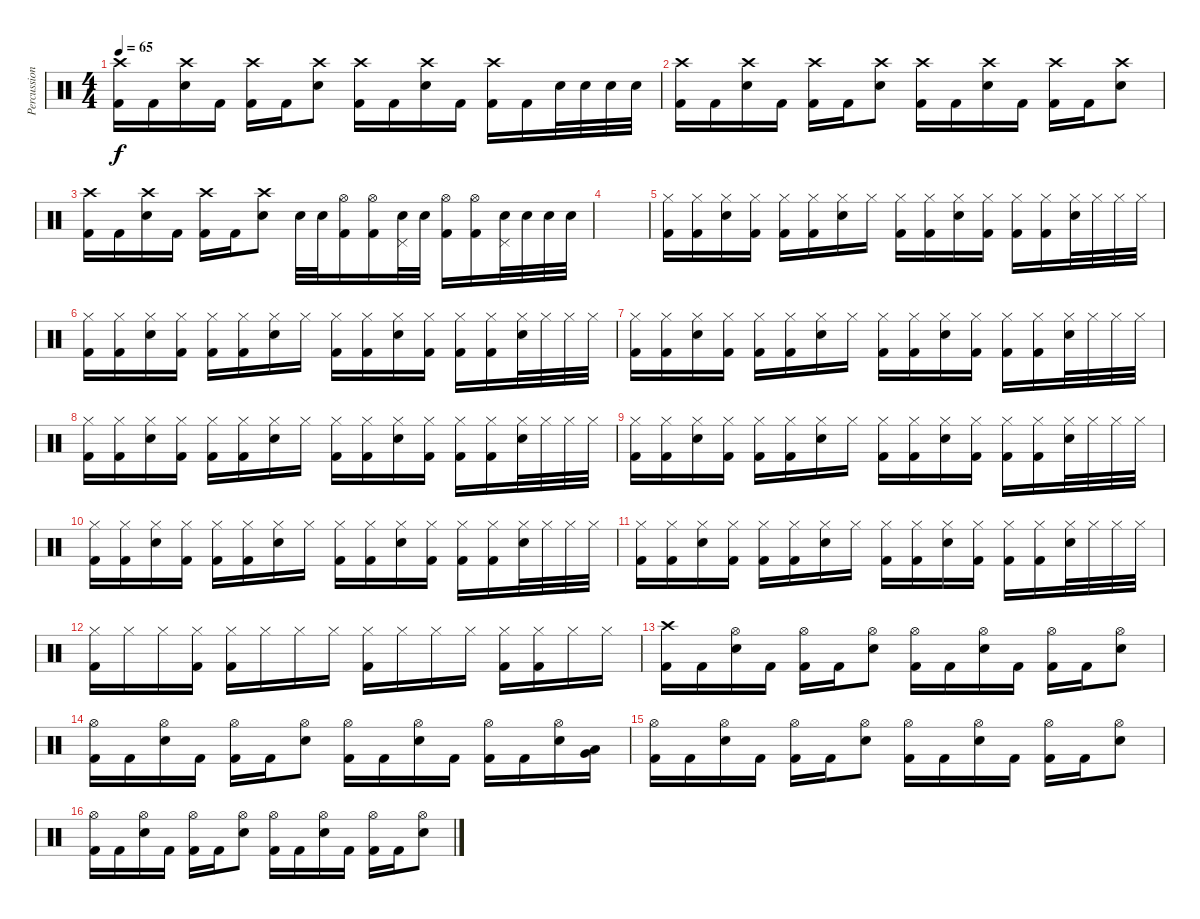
\track ("Percussion" "Percussion") {instrument percussion}
\staff {score}
\articulation defaults
\ts (4 4)
\tempo 65
\clef neutral
\ks c
("Crash high (hit)" "Kick (hit) 2").16{dy f} "Kick (hit) 2".16 ("Crash high (hit)" "Snare (hit) 2").16 "Kick (hit) 2".16 ("Crash high (hit)" "Kick (hit) 2").16 "Kick (hit) 2".16 ("Crash high (hit)" "Snare (hit) 2").8 ("Crash high (hit)" "Kick (hit) 2").16 "Kick (hit) 2".16 ("Crash high (hit)" "Snare (hit) 2").16 "Kick (hit) 2".16 ("Crash high (hit)" "Kick (hit) 2").16 "Kick (hit) 2".16 "Snare (hit) 2".32 "Snare (hit) 2".32 "Snare (hit) 2".32 "Snare (hit) 2".32 |
("Crash high (hit)" "Kick (hit) 2").16 "Kick (hit) 2".16 ("Crash high (hit)" "Snare (hit) 2").16 "Kick (hit) 2".16 ("Crash high (hit)" "Kick (hit) 2").16 "Kick (hit) 2".16 ("Crash high (hit)" "Snare (hit) 2").8 ("Crash high (hit)" "Kick (hit) 2").16 "Kick (hit) 2".16 ("Crash high (hit)" "Snare (hit) 2").16 "Kick (hit) 2".16 ("Crash high (hit)" "Kick (hit) 2").16 "Kick (hit) 2".16 ("Crash high (hit)" "Snare (hit) 2").8 |
("Crash high (hit)" "Kick (hit) 2").16 "Kick (hit) 2".16 ("Crash high (hit)" "Snare (hit) 2").16 "Kick (hit) 2".16 ("Crash high (hit)" "Kick (hit) 2").16 "Kick (hit) 2".16 ("Crash high (hit)" "Snare (hit) 2").8 "Snare (hit) 2".32 "Snare (hit) 2".32 ("Hi-Hat (open)" "Kick (hit) 2").16 ("Hi-Hat (open)" "Kick (hit) 2").16 ("Pedal Hi-Hat (hit)" "Snare (hit) 2").32 "Snare (hit) 2".32 ("Hi-Hat (open)" "Kick (hit) 2").16 ("Hi-Hat (open)" "Kick (hit) 2").16 ("Pedal Hi-Hat (hit)" "Snare (hit) 2").32 "Snare (hit) 2".32 "Snare (hit) 2".32 "Snare (hit) 2".32 |
|
("Hi-Hat (closed)" "Kick (hit) 2").16 ("Hi-Hat (closed)" "Kick (hit) 2").16 ("Hi-Hat (closed)" "Snare (hit) 2").16 ("Hi-Hat (closed)" "Kick (hit) 2").16 ("Hi-Hat (closed)" "Kick (hit) 2").16 ("Hi-Hat (closed)" "Kick (hit) 2").16 ("Hi-Hat (closed)" "Snare (hit) 2").16 "Hi-Hat (closed)".16 ("Hi-Hat (closed)" "Kick (hit) 2").16 ("Hi-Hat (closed)" "Kick (hit) 2").16 ("Hi-Hat (closed)" "Snare (hit) 2").16 ("Hi-Hat (closed)" "Kick (hit) 2").16 ("Hi-Hat (closed)" "Kick (hit) 2").16 ("Hi-Hat (closed)" "Kick (hit) 2").16 ("Hi-Hat (closed)" "Snare (hit) 2").32 "Hi-Hat (closed)".32 "Hi-Hat (closed)".32 "Hi-Hat (closed)".32 |
("Hi-Hat (closed)" "Kick (hit) 2").16 ("Hi-Hat (closed)" "Kick (hit) 2").16 ("Hi-Hat (closed)" "Snare (hit) 2").16 ("Hi-Hat (closed)" "Kick (hit) 2").16 ("Hi-Hat (closed)" "Kick (hit) 2").16 ("Hi-Hat (closed)" "Kick (hit) 2").16 ("Hi-Hat (closed)" "Snare (hit) 2").16 "Hi-Hat (closed)".16 ("Hi-Hat (closed)" "Kick (hit) 2").16 ("Hi-Hat (closed)" "Kick (hit) 2").16 ("Hi-Hat (closed)" "Snare (hit) 2").16 ("Hi-Hat (closed)" "Kick (hit) 2").16 ("Hi-Hat (closed)" "Kick (hit) 2").16 ("Hi-Hat (closed)" "Kick (hit) 2").16 ("Hi-Hat (closed)" "Snare (hit) 2").32 "Hi-Hat (closed)".32 "Hi-Hat (closed)".32 "Hi-Hat (closed)".32 |
("Hi-Hat (closed)" "Kick (hit) 2").16 ("Hi-Hat (closed)" "Kick (hit) 2").16 ("Hi-Hat (closed)" "Snare (hit) 2").16 ("Hi-Hat (closed)" "Kick (hit) 2").16 ("Hi-Hat (closed)" "Kick (hit) 2").16 ("Hi-Hat (closed)" "Kick (hit) 2").16 ("Hi-Hat (closed)" "Snare (hit) 2").16 "Hi-Hat (closed)".16 ("Hi-Hat (closed)" "Kick (hit) 2").16 ("Hi-Hat (closed)" "Kick (hit) 2").16 ("Hi-Hat (closed)" "Snare (hit) 2").16 ("Hi-Hat (closed)" "Kick (hit) 2").16 ("Hi-Hat (closed)" "Kick (hit) 2").16 ("Hi-Hat (closed)" "Kick (hit) 2").16 ("Hi-Hat (closed)" "Snare (hit) 2").32 "Hi-Hat (closed)".32 "Hi-Hat (closed)".32 "Hi-Hat (closed)".32 |
("Hi-Hat (closed)" "Kick (hit) 2").16 ("Hi-Hat (closed)" "Kick (hit) 2").16 ("Hi-Hat (closed)" "Snare (hit) 2").16 ("Hi-Hat (closed)" "Kick (hit) 2").16 ("Hi-Hat (closed)" "Kick (hit) 2").16 ("Hi-Hat (closed)" "Kick (hit) 2").16 ("Hi-Hat (closed)" "Snare (hit) 2").16 "Hi-Hat (closed)".16 ("Hi-Hat (closed)" "Kick (hit) 2").16 ("Hi-Hat (closed)" "Kick (hit) 2").16 ("Hi-Hat (closed)" "Snare (hit) 2").16 ("Hi-Hat (closed)" "Kick (hit) 2").16 ("Hi-Hat (closed)" "Kick (hit) 2").16 ("Hi-Hat (closed)" "Kick (hit) 2").16 ("Hi-Hat (closed)" "Snare (hit) 2").32 "Hi-Hat (closed)".32 "Hi-Hat (closed)".32 "Hi-Hat (closed)".32 |
("Hi-Hat (closed)" "Kick (hit) 2").16 ("Hi-Hat (closed)" "Kick (hit) 2").16 ("Hi-Hat (closed)" "Snare (hit) 2").16 ("Hi-Hat (closed)" "Kick (hit) 2").16 ("Hi-Hat (closed)" "Kick (hit) 2").16 ("Hi-Hat (closed)" "Kick (hit) 2").16 ("Hi-Hat (closed)" "Snare (hit) 2").16 "Hi-Hat (closed)".16 ("Hi-Hat (closed)" "Kick (hit) 2").16 ("Hi-Hat (closed)" "Kick (hit) 2").16 ("Hi-Hat (closed)" "Snare (hit) 2").16 ("Hi-Hat (closed)" "Kick (hit) 2").16 ("Hi-Hat (closed)" "Kick (hit) 2").16 ("Hi-Hat (closed)" "Kick (hit) 2").16 ("Hi-Hat (closed)" "Snare (hit) 2").32 "Hi-Hat (closed)".32 "Hi-Hat (closed)".32 "Hi-Hat (closed)".32 |
("Hi-Hat (closed)" "Kick (hit) 2").16 ("Hi-Hat (closed)" "Kick (hit) 2").16 ("Hi-Hat (closed)" "Snare (hit) 2").16 ("Hi-Hat (closed)" "Kick (hit) 2").16 ("Hi-Hat (closed)" "Kick (hit) 2").16 ("Hi-Hat (closed)" "Kick (hit) 2").16 ("Hi-Hat (closed)" "Snare (hit) 2").16 "Hi-Hat (closed)".16 ("Hi-Hat (closed)" "Kick (hit) 2").16 ("Hi-Hat (closed)" "Kick (hit) 2").16 ("Hi-Hat (closed)" "Snare (hit) 2").16 ("Hi-Hat (closed)" "Kick (hit) 2").16 ("Hi-Hat (closed)" "Kick (hit) 2").16 ("Hi-Hat (closed)" "Kick (hit) 2").16 ("Hi-Hat (closed)" "Snare (hit) 2").32 "Hi-Hat (closed)".32 "Hi-Hat (closed)".32 "Hi-Hat (closed)".32 |
("Hi-Hat (closed)" "Kick (hit) 2").16 ("Hi-Hat (closed)" "Kick (hit) 2").16 ("Hi-Hat (closed)" "Snare (hit) 2").16 ("Hi-Hat (closed)" "Kick (hit) 2").16 ("Hi-Hat (closed)" "Kick (hit) 2").16 ("Hi-Hat (closed)" "Kick (hit) 2").16 ("Hi-Hat (closed)" "Snare (hit) 2").16 "Hi-Hat (closed)".16 ("Hi-Hat (closed)" "Kick (hit) 2").16 ("Hi-Hat (closed)" "Kick (hit) 2").16 ("Hi-Hat (closed)" "Snare (hit) 2").16 ("Hi-Hat (closed)" "Kick (hit) 2").16 ("Hi-Hat (closed)" "Kick (hit) 2").16 ("Hi-Hat (closed)" "Kick (hit) 2").16 ("Hi-Hat (closed)" "Snare (hit) 2").32 "Hi-Hat (closed)".32 "Hi-Hat (closed)".32 "Hi-Hat (closed)".32 |
("Hi-Hat (closed)" "Kick (hit) 2").16 "Hi-Hat (closed)".16 "Hi-Hat (closed)".16 ("Hi-Hat (closed)" "Kick (hit) 2").16 ("Hi-Hat (closed)" "Kick (hit) 2").16 "Hi-Hat (closed)".16 "Hi-Hat (closed)".16 "Hi-Hat (closed)".16 ("Hi-Hat (closed)" "Kick (hit) 2").16 "Hi-Hat (closed)".16 "Hi-Hat (closed)".16 "Hi-Hat (closed)".16 ("Hi-Hat (closed)" "Kick (hit) 2").16 ("Hi-Hat (closed)" "Kick (hit) 2").16 "Hi-Hat (closed)".16 "Hi-Hat (closed)".16 |
("Crash high (hit)" "Kick (hit) 2").16{volume 13} "Kick (hit) 2".16 ("Hi-Hat (open)" "Snare (hit) 2").16 "Kick (hit) 2".16 ("Hi-Hat (open)" "Kick (hit) 2").16 "Kick (hit) 2".16 ("Hi-Hat (open)" "Snare (hit) 2").8 ("Hi-Hat (open)" "Kick (hit) 2").16 "Kick (hit) 2".16 ("Hi-Hat (open)" "Snare (hit) 2").16 "Kick (hit) 2".16 ("Hi-Hat (open)" "Kick (hit) 2").16 "Kick (hit) 2".16 ("Hi-Hat (open)" "Snare (hit) 2").8 |
("Hi-Hat (open)" "Kick (hit) 2").16 "Kick (hit) 2".16 ("Hi-Hat (open)" "Snare (hit) 2").16 "Kick (hit) 2".16 ("Hi-Hat (open)" "Kick (hit) 2").16 "Kick (hit) 2".16 ("Hi-Hat (open)" "Snare (hit) 2").8 ("Hi-Hat (open)" "Kick (hit) 2").16 "Kick (hit) 2".16 ("Hi-Hat (open)" "Snare (hit) 2").16 "Kick (hit) 2".16 ("Hi-Hat (open)" "Kick (hit) 2").16 "Kick (hit) 2".16 ("Hi-Hat (open)" "Snare (hit) 2").16 ("Low Tom (hit)" "Very Low Tom (hit)").16 |
("Hi-Hat (open)" "Kick (hit) 2").16 "Kick (hit) 2".16 ("Hi-Hat (open)" "Snare (hit) 2").16 "Kick (hit) 2".16 ("Hi-Hat (open)" "Kick (hit) 2").16 "Kick (hit) 2".16 ("Hi-Hat (open)" "Snare (hit) 2").8 ("Hi-Hat (open)" "Kick (hit) 2").16 "Kick (hit) 2".16 ("Hi-Hat (open)" "Snare (hit) 2").16 "Kick (hit) 2".16 ("Hi-Hat (open)" "Kick (hit) 2").16 "Kick (hit) 2".16 ("Hi-Hat (open)" "Snare (hit) 2").8 |
("Hi-Hat (open)" "Kick (hit) 2").16 "Kick (hit) 2".16 ("Hi-Hat (open)" "Snare (hit) 2").16 "Kick (hit) 2".16 ("Hi-Hat (open)" "Kick (hit) 2").16 "Kick (hit) 2".16 ("Hi-Hat (open)" "Snare (hit) 2").8 ("Hi-Hat (open)" "Kick (hit) 2").16 "Kick (hit) 2".16 ("Hi-Hat (open)" "Snare (hit) 2").16 "Kick (hit) 2".16 ("Hi-Hat (open)" "Kick (hit) 2").16 "Kick (hit) 2".16 ("Hi-Hat (open)" "Snare (hit) 2").8
